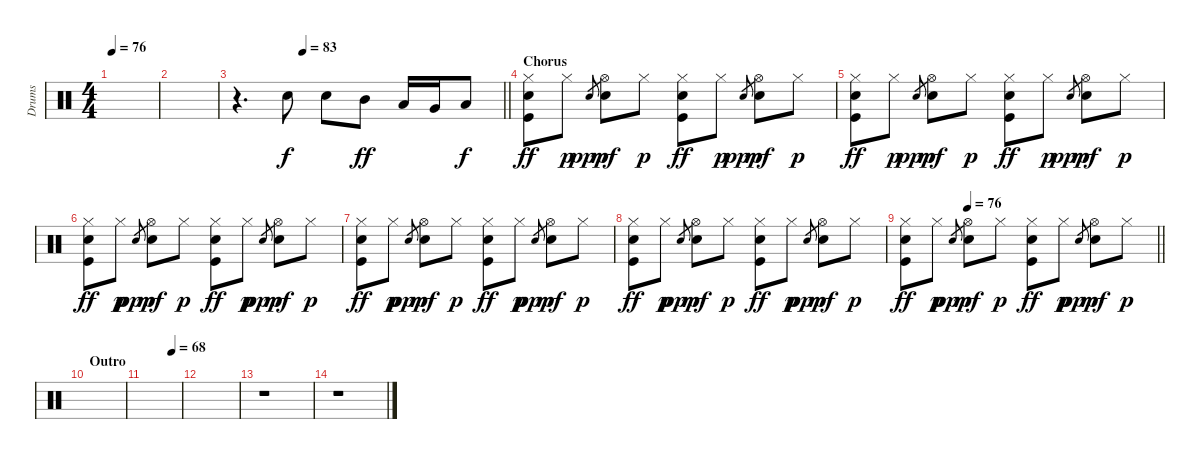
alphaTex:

\track ("Drums" "Drums") {instrument percussion}
\staff {score}
\articulation defaults
\ts (4 4)
\tempo 76
\clef neutral
\ks c
|
|
\tempo (83 0.25)
\barLineRight lightlight
r.4{d} "Snare (hit) 2".8{dy f} "Snare (hit) 2".8 "Mid Tom (hit)".8{dy ff} "Low Tom (hit)".16 "Very Low Tom (hit)".16 "Low Floor Tom (hit)".8{dy f} |
\section ("" "Chorus")
("Hi-Hat (closed)" "Snare (hit) 2" "Kick (hit)").8{dy ff} "Hi-Hat (closed)".8{dy p} "Snare (hit) 2"{x}.8{gr dy ppp} ("Hi-Hat (open)" "Snare (hit) 2").8{dy mf} "Hi-Hat (closed)".8{dy p} ("Hi-Hat (closed)" "Snare (hit) 2" "Kick (hit)").8{dy ff} "Hi-Hat (closed)".8{dy p} "Snare (hit) 2"{x}.8{gr dy ppp} ("Hi-Hat (open)" "Snare (hit) 2").8{dy mf} "Hi-Hat (closed)".8{dy p} |
("Hi-Hat (closed)" "Snare (hit) 2" "Kick (hit)").8{dy ff} "Hi-Hat (closed)".8{dy p} "Snare (hit) 2"{x}.8{gr dy ppp} ("Hi-Hat (open)" "Snare (hit) 2").8{dy mf} "Hi-Hat (closed)".8{dy p} ("Hi-Hat (closed)" "Snare (hit) 2" "Kick (hit)").8{dy ff} "Hi-Hat (closed)".8{dy p} "Snare (hit) 2"{x}.8{gr dy ppp} ("Hi-Hat (open)" "Snare (hit) 2").8{dy mf} "Hi-Hat (closed)".8{dy p} |
("Hi-Hat (closed)" "Snare (hit) 2" "Kick (hit)").8{dy ff} "Hi-Hat (closed)".8{dy p} "Snare (hit) 2"{x}.8{gr dy ppp} ("Hi-Hat (open)" "Snare (hit) 2").8{dy mf} "Hi-Hat (closed)".8{dy p} ("Hi-Hat (closed)" "Snare (hit) 2" "Kick (hit)").8{dy ff} "Hi-Hat (closed)".8{dy p} "Snare (hit) 2"{x}.8{gr dy ppp} ("Hi-Hat (open)" "Snare (hit) 2").8{dy mf} "Hi-Hat (closed)".8{dy p} |
("Hi-Hat (closed)" "Snare (hit) 2" "Kick (hit)").8{dy ff} "Hi-Hat (closed)".8{dy p} "Snare (hit) 2"{x}.8{gr dy ppp} ("Hi-Hat (open)" "Snare (hit) 2").8{dy mf} "Hi-Hat (closed)".8{dy p} ("Hi-Hat (closed)" "Snare (hit) 2" "Kick (hit)").8{dy ff} "Hi-Hat (closed)".8{dy p} "Snare (hit) 2"{x}.8{gr dy ppp} ("Hi-Hat (open)" "Snare (hit) 2").8{dy mf} "Hi-Hat (closed)".8{dy p} |
("Hi-Hat (closed)" "Snare (hit) 2" "Kick (hit)").8{dy ff} "Hi-Hat (closed)".8{dy p} "Snare (hit) 2"{x}.8{gr dy ppp} ("Hi-Hat (open)" "Snare (hit) 2").8{dy mf} "Hi-Hat (closed)".8{dy p} ("Hi-Hat (closed)" "Snare (hit) 2" "Kick (hit)").8{dy ff} "Hi-Hat (closed)".8{dy p} "Snare (hit) 2"{x}.8{gr dy ppp} ("Hi-Hat (open)" "Snare (hit) 2").8{dy mf} "Hi-Hat (closed)".8{dy p} |
\tempo (76 0.25)
\barLineRight lightlight
("Hi-Hat (closed)" "Snare (hit) 2" "Kick (hit)").8{dy ff} "Hi-Hat (closed)".8{dy p} "Snare (hit) 2"{x}.8{gr dy ppp} ("Hi-Hat (open)" "Snare (hit) 2").8{dy mf} "Hi-Hat (closed)".8{dy p} ("Hi-Hat (closed)" "Snare (hit) 2" "Kick (hit)").8{dy ff} "Hi-Hat (closed)".8{dy p} "Snare (hit) 2"{x}.8{gr dy ppp} ("Hi-Hat (open)" "Snare (hit) 2").8{dy mf} "Hi-Hat (closed)".8{dy p} |
\section ("" "Outro")
|
\tempo (68 0.75)
|
|
r.1 |
r.1
